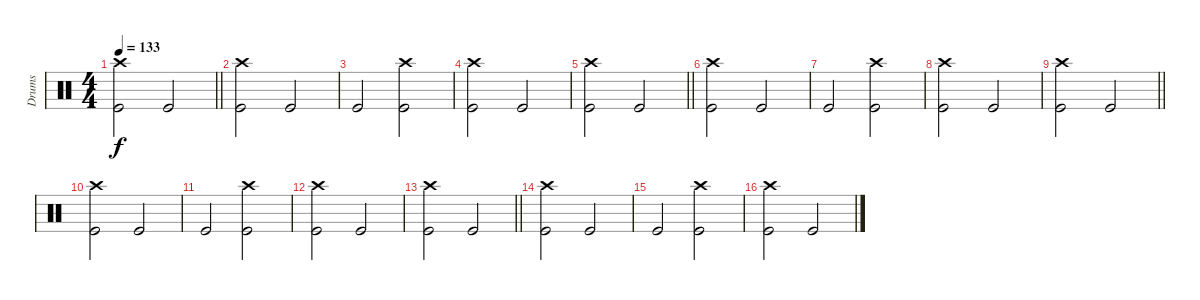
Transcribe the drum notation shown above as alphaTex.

\track ("Drums" "Drums") {instrument percussion}
\staff
\articulation defaults
\ts (4 4)
\tempo 133
\clef neutral
\barLineRight lightlight
\ks c
("Crash high (hit)" "Kick (hit)").2{dy f} "Kick (hit)".2 |
("Crash high (hit)" "Kick (hit)").2 "Kick (hit)".2 |
"Kick (hit)".2 ("Crash high (hit)" "Kick (hit)").2 |
("Crash high (hit)" "Kick (hit)").2 "Kick (hit)".2 |
\barLineRight lightlight
("Crash high (hit)" "Kick (hit)").2 "Kick (hit)".2 |
("Crash high (hit)" "Kick (hit)").2 "Kick (hit)".2 |
"Kick (hit)".2 ("Crash high (hit)" "Kick (hit)").2 |
("Crash high (hit)" "Kick (hit)").2 "Kick (hit)".2 |
\barLineRight lightlight
("Crash high (hit)" "Kick (hit)").2 "Kick (hit)".2 |
("Crash high (hit)" "Kick (hit)").2 "Kick (hit)".2 |
"Kick (hit)".2 ("Crash high (hit)" "Kick (hit)").2 |
("Crash high (hit)" "Kick (hit)").2 "Kick (hit)".2 |
\barLineRight lightlight
("Crash high (hit)" "Kick (hit)").2 "Kick (hit)".2 |
("Crash high (hit)" "Kick (hit)").2 "Kick (hit)".2 |
"Kick (hit)".2 ("Crash high (hit)" "Kick (hit)").2 |
("Crash high (hit)" "Kick (hit)").2 "Kick (hit)".2
